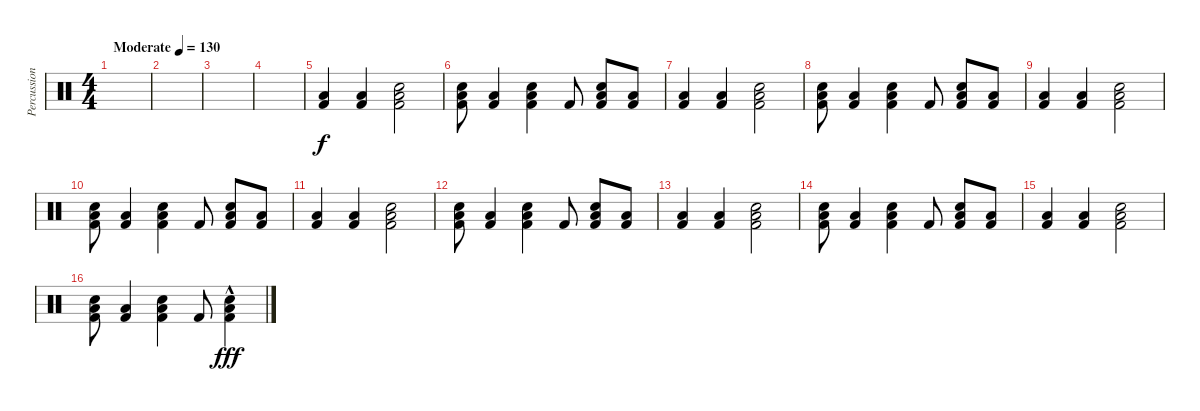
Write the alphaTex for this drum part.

\track ("Percussion" "Percussion") {instrument percussion}
\staff {score}
\articulation defaults
\ts (4 4)
\tempo (130 "Moderate")
\clef neutral
\ks c
|
|
|
|
("Low Tom (hit)" "Kick (hit) 2").4 ("Low Tom (hit)" "Kick (hit) 2").4 ("Electric Snare (hit)" "Low Tom (hit)" "Kick (hit) 2").2 |
("Electric Snare (hit)" "Low Tom (hit)" "Kick (hit) 2").8 ("Low Tom (hit)" "Kick (hit) 2").4 ("Electric Snare (hit)" "Low Tom (hit)" "Kick (hit) 2").4 "Kick (hit) 2".8 ("Electric Snare (hit)" "Low Tom (hit)" "Kick (hit) 2").8 ("Low Tom (hit)" "Kick (hit) 2").8 |
("Low Tom (hit)" "Kick (hit) 2").4 ("Low Tom (hit)" "Kick (hit) 2").4 ("Electric Snare (hit)" "Low Tom (hit)" "Kick (hit) 2").2 |
("Electric Snare (hit)" "Low Tom (hit)" "Kick (hit) 2").8 ("Low Tom (hit)" "Kick (hit) 2").4 ("Electric Snare (hit)" "Low Tom (hit)" "Kick (hit) 2").4 "Kick (hit) 2".8 ("Electric Snare (hit)" "Low Tom (hit)" "Kick (hit) 2").8 ("Low Tom (hit)" "Kick (hit) 2").8 |
("Low Tom (hit)" "Kick (hit) 2").4 ("Low Tom (hit)" "Kick (hit) 2").4 ("Electric Snare (hit)" "Low Tom (hit)" "Kick (hit) 2").2 |
("Electric Snare (hit)" "Low Tom (hit)" "Kick (hit) 2").8 ("Low Tom (hit)" "Kick (hit) 2").4 ("Electric Snare (hit)" "Low Tom (hit)" "Kick (hit) 2").4 "Kick (hit) 2".8 ("Electric Snare (hit)" "Low Tom (hit)" "Kick (hit) 2").8 ("Low Tom (hit)" "Kick (hit) 2").8 |
("Low Tom (hit)" "Kick (hit) 2").4 ("Low Tom (hit)" "Kick (hit) 2").4 ("Electric Snare (hit)" "Low Tom (hit)" "Kick (hit) 2").2 |
("Electric Snare (hit)" "Low Tom (hit)" "Kick (hit) 2").8 ("Low Tom (hit)" "Kick (hit) 2").4 ("Electric Snare (hit)" "Low Tom (hit)" "Kick (hit) 2").4 "Kick (hit) 2".8 ("Electric Snare (hit)" "Low Tom (hit)" "Kick (hit) 2").8 ("Low Tom (hit)" "Kick (hit) 2").8 |
("Low Tom (hit)" "Kick (hit) 2").4 ("Low Tom (hit)" "Kick (hit) 2").4 ("Electric Snare (hit)" "Low Tom (hit)" "Kick (hit) 2").2 |
("Electric Snare (hit)" "Low Tom (hit)" "Kick (hit) 2").8 ("Low Tom (hit)" "Kick (hit) 2").4 ("Electric Snare (hit)" "Low Tom (hit)" "Kick (hit) 2").4 "Kick (hit) 2".8 ("Electric Snare (hit)" "Low Tom (hit)" "Kick (hit) 2").8 ("Low Tom (hit)" "Kick (hit) 2").8 |
("Low Tom (hit)" "Kick (hit) 2").4 ("Low Tom (hit)" "Kick (hit) 2").4 ("Electric Snare (hit)" "Low Tom (hit)" "Kick (hit) 2").2 |
("Electric Snare (hit)" "Low Tom (hit)" "Kick (hit) 2").8 ("Low Tom (hit)" "Kick (hit) 2").4 ("Electric Snare (hit)" "Low Tom (hit)" "Kick (hit) 2").4 "Kick (hit) 2".8 ("Electric Snare (hit)"{hac} "Low Tom (hit)" "Kick (hit) 2").4{dy fff}
